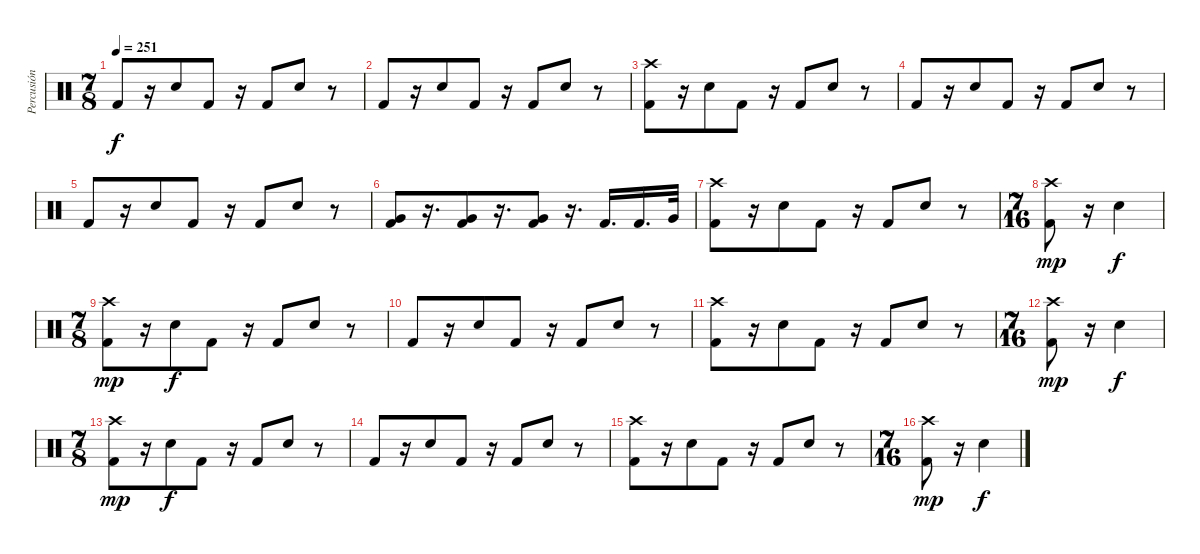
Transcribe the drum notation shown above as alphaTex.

\track ("Percusión" "Percusión") {instrument percussion}
\staff {score}
\articulation defaults
\ts (7 8)
\tempo 251
\clef neutral
\ks c "Kick (hit) 2".8{dy f}
r.16 "Snare (hit) 2".8 "Kick (hit) 2".8 r.16 "Kick (hit) 2".8 "Snare (hit) 2".8 r.8 |
"Kick (hit) 2".8 r.16 "Snare (hit) 2".8 "Kick (hit) 2".8 r.16 "Kick (hit) 2".8 "Snare (hit) 2".8 r.8 |
("Crash high (hit)" "Kick (hit) 2").8 r.16 "Snare (hit) 2".8 "Kick (hit) 2".8 r.16 "Kick (hit) 2".8 "Snare (hit) 2".8 r.8 |
"Kick (hit) 2".8 r.16 "Snare (hit) 2".8 "Kick (hit) 2".8 r.16 "Kick (hit) 2".8 "Snare (hit) 2".8 r.8 |
"Kick (hit) 2".8 r.16 "Snare (hit) 2".8 "Kick (hit) 2".8 r.16 "Kick (hit) 2".8 "Snare (hit) 2".8 r.8 |
("Kick (hit) 2" "Very Low Tom (hit)").8 r.16{d} ("Kick (hit) 2" "Very Low Tom (hit)").8 r.16{d} ("Kick (hit) 2" "Very Low Tom (hit)").8 r.16{d} "Kick (hit) 2".16{d} "Kick (hit) 2".16{d} "Very Low Tom (hit)".32 |
("Crash high (hit)" "Kick (hit) 2").8 r.16 "Snare (hit) 2".8 "Kick (hit) 2".8 r.16 "Kick (hit) 2".8 "Snare (hit) 2".8 r.8 |
\ts (7 16)
("Crash high (hit)" "Kick (hit) 2").8{dy mp} r.16 "Snare (hit) 2".4{dy f} |
\ts (7 8)
("Crash high (hit)" "Kick (hit) 2").8{dy mp} r.16 "Snare (hit) 2".8{dy f} "Kick (hit) 2".8 r.16 "Kick (hit) 2".8 "Snare (hit) 2".8 r.8 |
"Kick (hit) 2".8 r.16 "Snare (hit) 2".8 "Kick (hit) 2".8 r.16 "Kick (hit) 2".8 "Snare (hit) 2".8 r.8 |
("Crash high (hit)" "Kick (hit) 2").8 r.16 "Snare (hit) 2".8 "Kick (hit) 2".8 r.16 "Kick (hit) 2".8 "Snare (hit) 2".8 r.8 |
\ts (7 16)
("Crash high (hit)" "Kick (hit) 2").8{dy mp} r.16 "Snare (hit) 2".4{dy f} |
\ts (7 8)
("Crash high (hit)" "Kick (hit) 2").8{dy mp} r.16 "Snare (hit) 2".8{dy f} "Kick (hit) 2".8 r.16 "Kick (hit) 2".8 "Snare (hit) 2".8 r.8 |
"Kick (hit) 2".8 r.16 "Snare (hit) 2".8 "Kick (hit) 2".8 r.16 "Kick (hit) 2".8 "Snare (hit) 2".8 r.8 |
("Crash high (hit)" "Kick (hit) 2").8 r.16 "Snare (hit) 2".8 "Kick (hit) 2".8 r.16 "Kick (hit) 2".8 "Snare (hit) 2".8 r.8 |
\ts (7 16)
("Crash high (hit)" "Kick (hit) 2").8{dy mp} r.16 "Snare (hit) 2".4{dy f}
